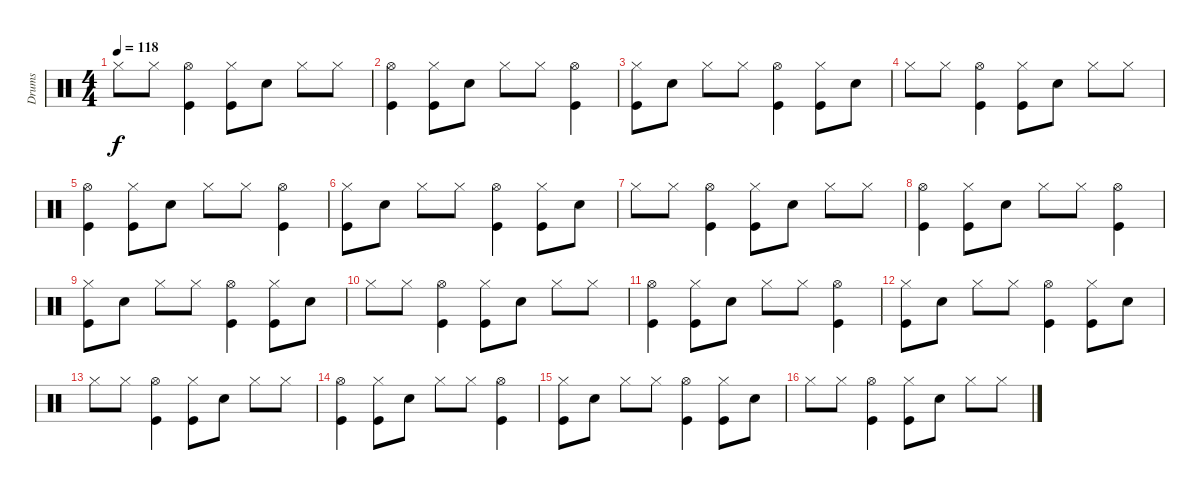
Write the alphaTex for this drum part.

\track ("Drums" "Drums") {instrument percussion}
\staff {score}
\articulation defaults
\ts (4 4)
\tempo 118
\clef neutral
\ks c "Hi-Hat (closed)".8{dy f} "Hi-Hat (closed)".8
("Kick (hit)" "Hi-Hat (open)").4 ("Kick (hit)" "Hi-Hat (closed)").8 "Snare (hit) 2".8 "Hi-Hat (closed)".8 "Hi-Hat (closed)".8 |
("Kick (hit)" "Hi-Hat (open)").4 ("Kick (hit)" "Hi-Hat (closed)").8 "Snare (hit) 2".8 "Hi-Hat (closed)".8 "Hi-Hat (closed)".8 ("Kick (hit)" "Hi-Hat (open)").4 |
("Kick (hit)" "Hi-Hat (closed)").8 "Snare (hit) 2".8 "Hi-Hat (closed)".8 "Hi-Hat (closed)".8 ("Kick (hit)" "Hi-Hat (open)").4 ("Kick (hit)" "Hi-Hat (closed)").8 "Snare (hit) 2".8 |
"Hi-Hat (closed)".8 "Hi-Hat (closed)".8 ("Kick (hit)" "Hi-Hat (open)").4 ("Kick (hit)" "Hi-Hat (closed)").8 "Snare (hit) 2".8 "Hi-Hat (closed)".8 "Hi-Hat (closed)".8 |
("Kick (hit)" "Hi-Hat (open)").4 ("Kick (hit)" "Hi-Hat (closed)").8 "Snare (hit) 2".8 "Hi-Hat (closed)".8 "Hi-Hat (closed)".8 ("Kick (hit)" "Hi-Hat (open)").4 |
("Kick (hit)" "Hi-Hat (closed)").8 "Snare (hit) 2".8 "Hi-Hat (closed)".8 "Hi-Hat (closed)".8 ("Kick (hit)" "Hi-Hat (open)").4 ("Kick (hit)" "Hi-Hat (closed)").8 "Snare (hit) 2".8 |
"Hi-Hat (closed)".8 "Hi-Hat (closed)".8 ("Kick (hit)" "Hi-Hat (open)").4 ("Kick (hit)" "Hi-Hat (closed)").8 "Snare (hit) 2".8 "Hi-Hat (closed)".8 "Hi-Hat (closed)".8 |
("Kick (hit)" "Hi-Hat (open)").4 ("Kick (hit)" "Hi-Hat (closed)").8 "Snare (hit) 2".8 "Hi-Hat (closed)".8 "Hi-Hat (closed)".8 ("Kick (hit)" "Hi-Hat (open)").4 |
("Kick (hit)" "Hi-Hat (closed)").8 "Snare (hit) 2".8 "Hi-Hat (closed)".8 "Hi-Hat (closed)".8 ("Kick (hit)" "Hi-Hat (open)").4 ("Kick (hit)" "Hi-Hat (closed)").8 "Snare (hit) 2".8 |
"Hi-Hat (closed)".8 "Hi-Hat (closed)".8 ("Kick (hit)" "Hi-Hat (open)").4 ("Kick (hit)" "Hi-Hat (closed)").8 "Snare (hit) 2".8 "Hi-Hat (closed)".8 "Hi-Hat (closed)".8 |
("Kick (hit)" "Hi-Hat (open)").4 ("Kick (hit)" "Hi-Hat (closed)").8 "Snare (hit) 2".8 "Hi-Hat (closed)".8 "Hi-Hat (closed)".8 ("Kick (hit)" "Hi-Hat (open)").4 |
("Kick (hit)" "Hi-Hat (closed)").8 "Snare (hit) 2".8 "Hi-Hat (closed)".8 "Hi-Hat (closed)".8 ("Kick (hit)" "Hi-Hat (open)").4 ("Kick (hit)" "Hi-Hat (closed)").8 "Snare (hit) 2".8 |
"Hi-Hat (closed)".8 "Hi-Hat (closed)".8 ("Kick (hit)" "Hi-Hat (open)").4 ("Kick (hit)" "Hi-Hat (closed)").8 "Snare (hit) 2".8 "Hi-Hat (closed)".8 "Hi-Hat (closed)".8 |
("Kick (hit)" "Hi-Hat (open)").4 ("Kick (hit)" "Hi-Hat (closed)").8 "Snare (hit) 2".8 "Hi-Hat (closed)".8 "Hi-Hat (closed)".8 ("Kick (hit)" "Hi-Hat (open)").4 |
("Kick (hit)" "Hi-Hat (closed)").8 "Snare (hit) 2".8 "Hi-Hat (closed)".8 "Hi-Hat (closed)".8 ("Kick (hit)" "Hi-Hat (open)").4 ("Kick (hit)" "Hi-Hat (closed)").8 "Snare (hit) 2".8 |
"Hi-Hat (closed)".8 "Hi-Hat (closed)".8 ("Kick (hit)" "Hi-Hat (open)").4 ("Kick (hit)" "Hi-Hat (closed)").8 "Snare (hit) 2".8 "Hi-Hat (closed)".8 "Hi-Hat (closed)".8
